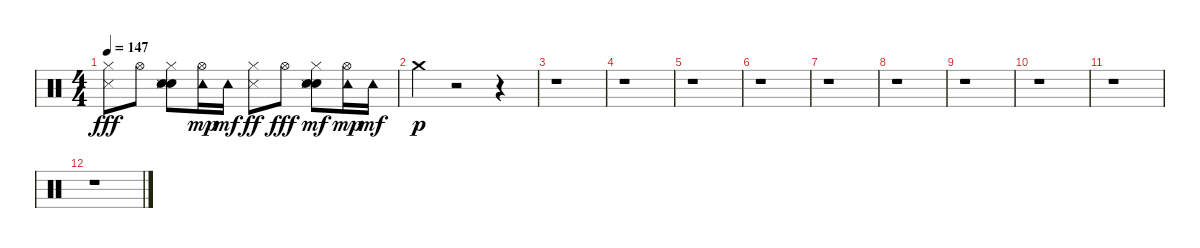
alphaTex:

\track "" {instrument percussion}
\staff {score}
\articulation defaults
\ts (4 4)
\tempo 147
\clef neutral
\ks c
("Metronome (hit)" "Hi-Hat (closed)").8{dy fff} "Hi-Hat (open)".8 ("Hand Clap (hit)" "Metronome (hit)" "Hi-Hat (closed)" "Snare (hit) 2").8 ("Hi-Hat (open)" "Tambourine (hit)").16{dy mp} "Tambourine (hit)".16{dy mf} ("Metronome (hit)" "Hi-Hat (closed)").8{dy ff} "Hi-Hat (open)".8{dy fff} ("Hand Clap (hit)" "Metronome (hit)" "Hi-Hat (closed)" "Snare (hit) 2").8{dy mf} ("Hi-Hat (open)" "Tambourine (hit)").16{dy mp} "Tambourine (hit)".16{dy mf} |
"Crash medium (hit)".4{dy p} r.2 r.4 |
r.1 |
r.1 |
r.1 |
r.1 |
r.1 |
r.1 |
r.1 |
r.1 |
r.1 |
r.1
